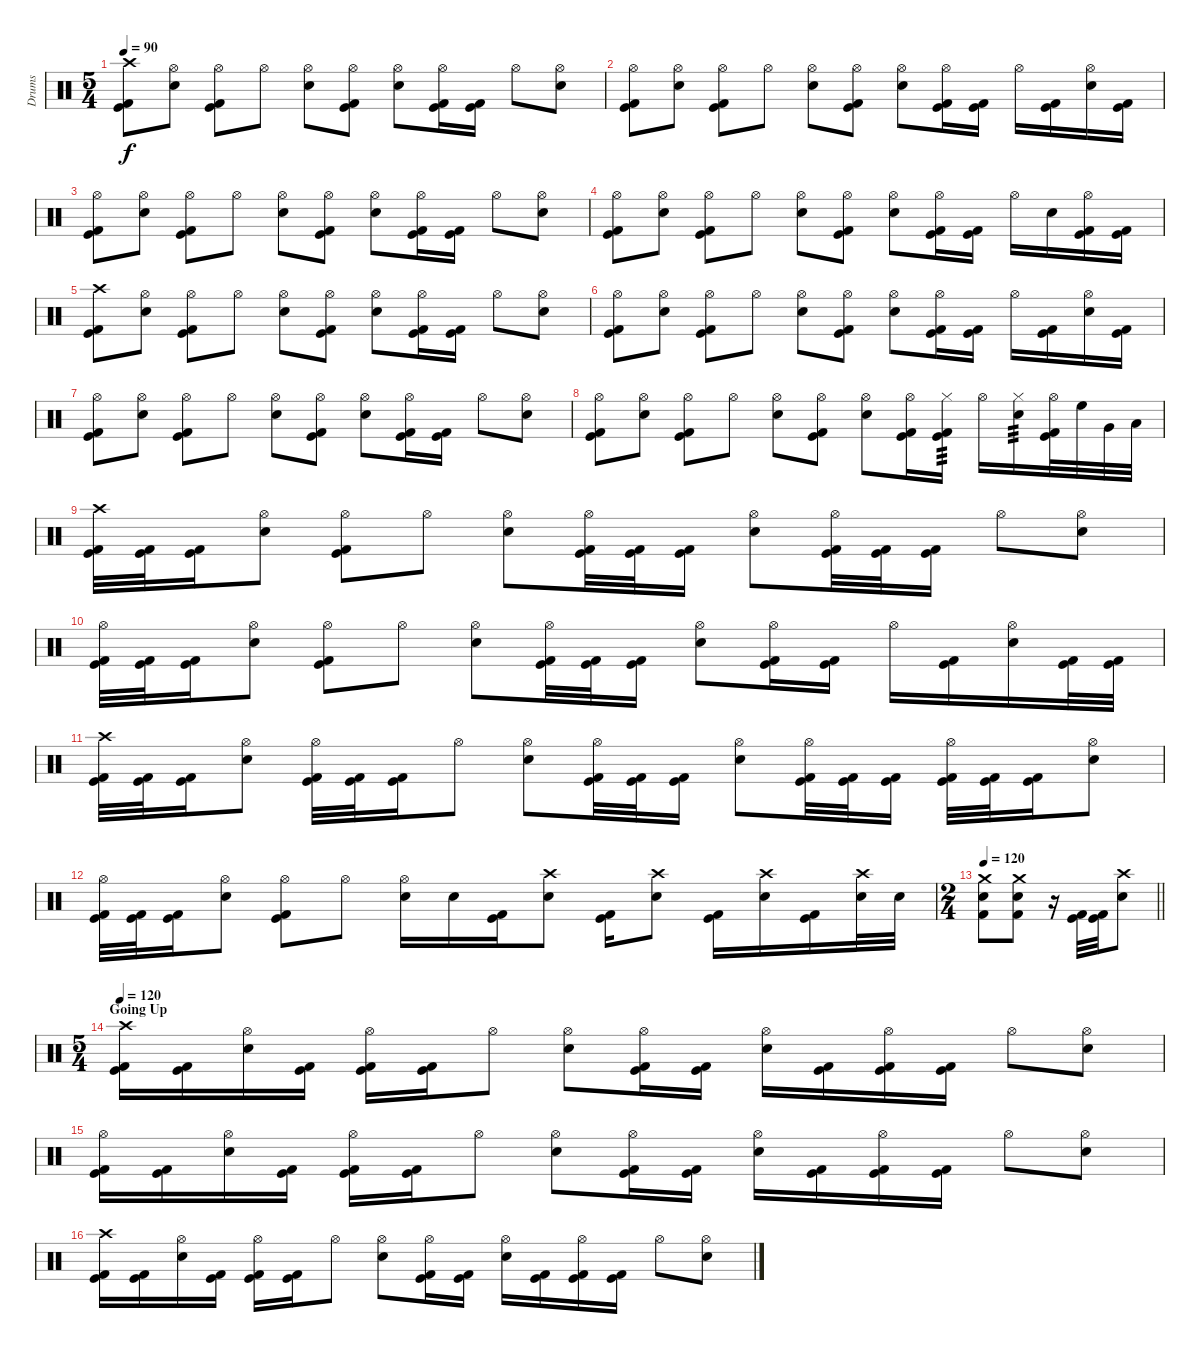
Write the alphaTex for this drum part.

\track ("Drums" "Drums") {instrument percussion}
\staff {score}
\articulation defaults
\ts (5 4)
\tempo 90
\clef neutral
\ks c
("Crash high (hit)" "Kick (hit) 2" "Kick (hit)").8{dy f} ("Hi-Hat (open)" "Electric Snare (hit)").8 ("Hi-Hat (open)" "Kick (hit) 2" "Kick (hit)").8 "Hi-Hat (open)".8 ("Hi-Hat (open)" "Electric Snare (hit)").8 ("Hi-Hat (open)" "Kick (hit) 2" "Kick (hit)").8 ("Hi-Hat (open)" "Electric Snare (hit)").8 ("Hi-Hat (open)" "Kick (hit) 2" "Kick (hit)").16 ("Kick (hit) 2" "Kick (hit)").16 "Hi-Hat (open)".8 ("Hi-Hat (open)" "Electric Snare (hit)").8 |
("Hi-Hat (open)" "Kick (hit) 2" "Kick (hit)").8 ("Hi-Hat (open)" "Electric Snare (hit)").8 ("Hi-Hat (open)" "Kick (hit) 2" "Kick (hit)").8 "Hi-Hat (open)".8 ("Hi-Hat (open)" "Electric Snare (hit)").8 ("Hi-Hat (open)" "Kick (hit) 2" "Kick (hit)").8 ("Hi-Hat (open)" "Electric Snare (hit)").8 ("Hi-Hat (open)" "Kick (hit) 2" "Kick (hit)").16 ("Kick (hit) 2" "Kick (hit)").16 "Hi-Hat (open)".16 ("Kick (hit) 2" "Kick (hit)").16 ("Hi-Hat (open)" "Electric Snare (hit)").16 ("Kick (hit) 2" "Kick (hit)").16 |
("Hi-Hat (open)" "Kick (hit) 2" "Kick (hit)").8 ("Hi-Hat (open)" "Electric Snare (hit)").8 ("Hi-Hat (open)" "Kick (hit) 2" "Kick (hit)").8 "Hi-Hat (open)".8 ("Hi-Hat (open)" "Electric Snare (hit)").8 ("Hi-Hat (open)" "Kick (hit) 2" "Kick (hit)").8 ("Hi-Hat (open)" "Electric Snare (hit)").8 ("Hi-Hat (open)" "Kick (hit) 2" "Kick (hit)").16 ("Kick (hit) 2" "Kick (hit)").16 "Hi-Hat (open)".8 ("Hi-Hat (open)" "Electric Snare (hit)").8 |
("Hi-Hat (open)" "Kick (hit) 2" "Kick (hit)").8 ("Hi-Hat (open)" "Electric Snare (hit)").8 ("Hi-Hat (open)" "Kick (hit) 2" "Kick (hit)").8 "Hi-Hat (open)".8 ("Hi-Hat (open)" "Electric Snare (hit)").8 ("Hi-Hat (open)" "Kick (hit) 2" "Kick (hit)").8 ("Hi-Hat (open)" "Electric Snare (hit)").8 ("Hi-Hat (open)" "Kick (hit) 2" "Kick (hit)").16 ("Kick (hit) 2" "Kick (hit)").16 "Hi-Hat (open)".16 "Electric Snare (hit)".16 ("Hi-Hat (open)" "Kick (hit) 2" "Kick (hit)").16 ("Kick (hit) 2" "Kick (hit)").16 |
("Crash high (hit)" "Kick (hit) 2" "Kick (hit)").8 ("Hi-Hat (open)" "Electric Snare (hit)").8 ("Hi-Hat (open)" "Kick (hit) 2" "Kick (hit)").8 "Hi-Hat (open)".8 ("Hi-Hat (open)" "Electric Snare (hit)").8 ("Hi-Hat (open)" "Kick (hit) 2" "Kick (hit)").8 ("Hi-Hat (open)" "Electric Snare (hit)").8 ("Hi-Hat (open)" "Kick (hit) 2" "Kick (hit)").16 ("Kick (hit) 2" "Kick (hit)").16 "Hi-Hat (open)".8 ("Hi-Hat (open)" "Electric Snare (hit)").8 |
("Hi-Hat (open)" "Kick (hit) 2" "Kick (hit)").8 ("Hi-Hat (open)" "Electric Snare (hit)").8 ("Hi-Hat (open)" "Kick (hit) 2" "Kick (hit)").8 "Hi-Hat (open)".8 ("Hi-Hat (open)" "Electric Snare (hit)").8 ("Hi-Hat (open)" "Kick (hit) 2" "Kick (hit)").8 ("Hi-Hat (open)" "Electric Snare (hit)").8 ("Hi-Hat (open)" "Kick (hit) 2" "Kick (hit)").16 ("Kick (hit) 2" "Kick (hit)").16 "Hi-Hat (open)".16 ("Kick (hit) 2" "Kick (hit)").16 ("Hi-Hat (open)" "Electric Snare (hit)").16 ("Kick (hit) 2" "Kick (hit)").16 |
("Hi-Hat (open)" "Kick (hit) 2" "Kick (hit)").8 ("Hi-Hat (open)" "Electric Snare (hit)").8 ("Hi-Hat (open)" "Kick (hit) 2" "Kick (hit)").8 "Hi-Hat (open)".8 ("Hi-Hat (open)" "Electric Snare (hit)").8 ("Hi-Hat (open)" "Kick (hit) 2" "Kick (hit)").8 ("Hi-Hat (open)" "Electric Snare (hit)").8 ("Hi-Hat (open)" "Kick (hit) 2" "Kick (hit)").16 ("Kick (hit) 2" "Kick (hit)").16 "Hi-Hat (open)".8 ("Hi-Hat (open)" "Electric Snare (hit)").8 |
("Hi-Hat (open)" "Kick (hit) 2" "Kick (hit)").8 ("Hi-Hat (open)" "Electric Snare (hit)").8 ("Hi-Hat (open)" "Kick (hit) 2" "Kick (hit)").8 "Hi-Hat (open)".8 ("Hi-Hat (open)" "Electric Snare (hit)").8 ("Hi-Hat (open)" "Kick (hit) 2" "Kick (hit)").8 ("Hi-Hat (open)" "Electric Snare (hit)").8 ("Hi-Hat (open)" "Kick (hit) 2" "Kick (hit)").16 ("Hi-Hat (closed)" "Kick (hit) 2" "Kick (hit)").16{tp 3} "Hi-Hat (open)".16 ("Hi-Hat (closed)" "Electric Snare (hit)").16{tp 3} ("Hi-Hat (open)" "Kick (hit) 2" "Kick (hit)").32 "High Floor Tom (hit)".32 "Very Low Tom (hit)".32 "Low Floor Tom (hit)".32 |
("Crash high (hit)" "Kick (hit) 2" "Kick (hit)").32 ("Kick (hit) 2" "Kick (hit)").32 ("Kick (hit) 2" "Kick (hit)").16 ("Hi-Hat (open)" "Electric Snare (hit)").8 ("Hi-Hat (open)" "Kick (hit) 2" "Kick (hit)").8 "Hi-Hat (open)".8 ("Hi-Hat (open)" "Electric Snare (hit)").8 ("Hi-Hat (open)" "Kick (hit) 2" "Kick (hit)").32 ("Kick (hit) 2" "Kick (hit)").32 ("Kick (hit) 2" "Kick (hit)").16 ("Hi-Hat (open)" "Electric Snare (hit)").8 ("Hi-Hat (open)" "Kick (hit) 2" "Kick (hit)").32 ("Kick (hit) 2" "Kick (hit)").32 ("Kick (hit) 2" "Kick (hit)").16 "Hi-Hat (open)".8 ("Hi-Hat (open)" "Electric Snare (hit)").8 |
("Hi-Hat (open)" "Kick (hit) 2" "Kick (hit)").32 ("Kick (hit) 2" "Kick (hit)").32 ("Kick (hit) 2" "Kick (hit)").16 ("Hi-Hat (open)" "Electric Snare (hit)").8 ("Hi-Hat (open)" "Kick (hit) 2" "Kick (hit)").8 "Hi-Hat (open)".8 ("Hi-Hat (open)" "Electric Snare (hit)").8 ("Hi-Hat (open)" "Kick (hit) 2" "Kick (hit)").32 ("Kick (hit) 2" "Kick (hit)").32 ("Kick (hit) 2" "Kick (hit)").16 ("Hi-Hat (open)" "Electric Snare (hit)").8 ("Hi-Hat (open)" "Kick (hit) 2" "Kick (hit)").16 ("Kick (hit) 2" "Kick (hit)").16 "Hi-Hat (open)".16 ("Kick (hit) 2" "Kick (hit)").16 ("Hi-Hat (open)" "Electric Snare (hit)").16 ("Kick (hit) 2" "Kick (hit)").32 ("Kick (hit) 2" "Kick (hit)").32 |
("Crash high (hit)" "Kick (hit) 2" "Kick (hit)").32 ("Kick (hit) 2" "Kick (hit)").32 ("Kick (hit) 2" "Kick (hit)").16 ("Hi-Hat (open)" "Electric Snare (hit)").8 ("Hi-Hat (open)" "Kick (hit) 2" "Kick (hit)").32 ("Kick (hit) 2" "Kick (hit)").32 ("Kick (hit) 2" "Kick (hit)").16 "Hi-Hat (open)".8 ("Hi-Hat (open)" "Electric Snare (hit)").8 ("Hi-Hat (open)" "Kick (hit) 2" "Kick (hit)").32 ("Kick (hit) 2" "Kick (hit)").32 ("Kick (hit) 2" "Kick (hit)").16 ("Hi-Hat (open)" "Electric Snare (hit)").8 ("Hi-Hat (open)" "Kick (hit) 2" "Kick (hit)").32 ("Kick (hit) 2" "Kick (hit)").32 ("Kick (hit) 2" "Kick (hit)").16 ("Hi-Hat (open)" "Kick (hit) 2" "Kick (hit)").32 ("Kick (hit) 2" "Kick (hit)").32 ("Kick (hit) 2" "Kick (hit)").16 ("Hi-Hat (open)" "Electric Snare (hit)").8 |
("Hi-Hat (open)" "Kick (hit) 2" "Kick (hit)").32 ("Kick (hit) 2" "Kick (hit)").32 ("Kick (hit) 2" "Kick (hit)").16 ("Hi-Hat (open)" "Electric Snare (hit)").8 ("Hi-Hat (open)" "Kick (hit) 2" "Kick (hit)").8 "Hi-Hat (open)".8 ("Hi-Hat (open)" "Electric Snare (hit)").16 "Electric Snare (hit)".16 ("Kick (hit) 2" "Kick (hit)").16 ("Crash high (hit)" "Electric Snare (hit)").8 ("Kick (hit) 2" "Kick (hit)").16 ("Crash high (hit)" "Electric Snare (hit)").8 ("Kick (hit) 2" "Kick (hit)").16 ("Crash high (hit)" "Electric Snare (hit)").16 ("Kick (hit) 2" "Kick (hit)").16 ("Crash high (hit)" "Electric Snare (hit)").32 "Electric Snare (hit)".32 |
\ts (2 4)
\tempo 120
\barLineRight lightlight
("Crash medium (hit)" "Electric Snare (hit)" "Kick (hit) 2").8 ("Crash medium (hit)" "Electric Snare (hit)" "Kick (hit) 2").8 r.16 ("Kick (hit) 2" "Kick (hit)").32 ("Kick (hit) 2" "Kick (hit)").32 ("Crash high (hit)" "Electric Snare (hit)").8 |
\ts (5 4)
\section ("" "Going Up")
\tempo 120
("Crash high (hit)" "Kick (hit) 2" "Kick (hit)").16 ("Kick (hit) 2" "Kick (hit)").16 ("Hi-Hat (open)" "Electric Snare (hit)").16 ("Kick (hit) 2" "Kick (hit)").16 ("Hi-Hat (open)" "Kick (hit) 2" "Kick (hit)").16 ("Kick (hit) 2" "Kick (hit)").16 "Hi-Hat (open)".8 ("Hi-Hat (open)" "Electric Snare (hit)").8 ("Hi-Hat (open)" "Kick (hit) 2" "Kick (hit)").16 ("Kick (hit) 2" "Kick (hit)").16 ("Hi-Hat (open)" "Electric Snare (hit)").16 ("Kick (hit) 2" "Kick (hit)").16 ("Hi-Hat (open)" "Kick (hit) 2" "Kick (hit)").16 ("Kick (hit) 2" "Kick (hit)").16 "Hi-Hat (open)".8 ("Hi-Hat (open)" "Electric Snare (hit)").8 |
("Hi-Hat (open)" "Kick (hit) 2" "Kick (hit)").16 ("Kick (hit) 2" "Kick (hit)").16 ("Hi-Hat (open)" "Electric Snare (hit)").16 ("Kick (hit) 2" "Kick (hit)").16 ("Hi-Hat (open)" "Kick (hit) 2" "Kick (hit)").16 ("Kick (hit) 2" "Kick (hit)").16 "Hi-Hat (open)".8 ("Hi-Hat (open)" "Electric Snare (hit)").8 ("Hi-Hat (open)" "Kick (hit) 2" "Kick (hit)").16 ("Kick (hit) 2" "Kick (hit)").16 ("Hi-Hat (open)" "Electric Snare (hit)").16 ("Kick (hit) 2" "Kick (hit)").16 ("Hi-Hat (open)" "Kick (hit) 2" "Kick (hit)").16 ("Kick (hit) 2" "Kick (hit)").16 "Hi-Hat (open)".8 ("Hi-Hat (open)" "Electric Snare (hit)").8 |
("Crash high (hit)" "Kick (hit) 2" "Kick (hit)").16 ("Kick (hit) 2" "Kick (hit)").16 ("Hi-Hat (open)" "Electric Snare (hit)").16 ("Kick (hit) 2" "Kick (hit)").16 ("Hi-Hat (open)" "Kick (hit) 2" "Kick (hit)").16 ("Kick (hit) 2" "Kick (hit)").16 "Hi-Hat (open)".8 ("Hi-Hat (open)" "Electric Snare (hit)").8 ("Hi-Hat (open)" "Kick (hit) 2" "Kick (hit)").16 ("Kick (hit) 2" "Kick (hit)").16 ("Hi-Hat (open)" "Electric Snare (hit)").16 ("Kick (hit) 2" "Kick (hit)").16 ("Hi-Hat (open)" "Kick (hit) 2" "Kick (hit)").16 ("Kick (hit) 2" "Kick (hit)").16 "Hi-Hat (open)".8 ("Hi-Hat (open)" "Electric Snare (hit)").8
